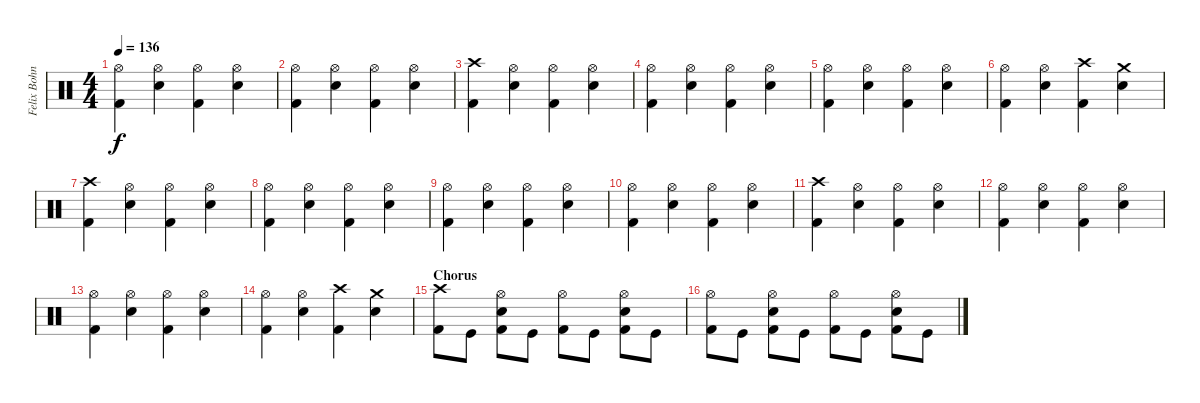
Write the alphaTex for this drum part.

\track ("Felix Bohnke" "Felix Bohn") {instrument percussion}
\staff {score}
\articulation defaults
\ts (4 4)
\tempo 136
\clef neutral
\ks c
("Hi-Hat (open)" "Kick (hit) 2").4{dy f} ("Hi-Hat (open)" "Snare (hit) 2").4 ("Hi-Hat (open)" "Kick (hit) 2").4 ("Hi-Hat (open)" "Snare (hit) 2").4 |
("Hi-Hat (open)" "Kick (hit) 2").4 ("Hi-Hat (open)" "Snare (hit) 2").4 ("Hi-Hat (open)" "Kick (hit) 2").4 ("Hi-Hat (open)" "Snare (hit) 2").4 |
("Crash high (hit)" "Kick (hit) 2").4 ("Hi-Hat (open)" "Snare (hit) 2").4 ("Hi-Hat (open)" "Kick (hit) 2").4 ("Hi-Hat (open)" "Snare (hit) 2").4 |
("Hi-Hat (open)" "Kick (hit) 2").4 ("Hi-Hat (open)" "Snare (hit) 2").4 ("Hi-Hat (open)" "Kick (hit) 2").4 ("Hi-Hat (open)" "Snare (hit) 2").4 |
("Hi-Hat (open)" "Kick (hit) 2").4 ("Hi-Hat (open)" "Snare (hit) 2").4 ("Hi-Hat (open)" "Kick (hit) 2").4 ("Hi-Hat (open)" "Snare (hit) 2").4 |
("Hi-Hat (open)" "Kick (hit) 2").4 ("Hi-Hat (open)" "Snare (hit) 2").4 ("Crash high (hit)" "Kick (hit) 2").4 ("Crash medium (hit)" "Snare (hit) 2").4 |
("Crash high (hit)" "Kick (hit) 2").4 ("Hi-Hat (open)" "Snare (hit) 2").4 ("Hi-Hat (open)" "Kick (hit) 2").4 ("Hi-Hat (open)" "Snare (hit) 2").4 |
("Hi-Hat (open)" "Kick (hit) 2").4 ("Hi-Hat (open)" "Snare (hit) 2").4 ("Hi-Hat (open)" "Kick (hit) 2").4 ("Hi-Hat (open)" "Snare (hit) 2").4 |
("Hi-Hat (open)" "Kick (hit) 2").4 ("Hi-Hat (open)" "Snare (hit) 2").4 ("Hi-Hat (open)" "Kick (hit) 2").4 ("Hi-Hat (open)" "Snare (hit) 2").4 |
("Hi-Hat (open)" "Kick (hit) 2").4 ("Hi-Hat (open)" "Snare (hit) 2").4 ("Hi-Hat (open)" "Kick (hit) 2").4 ("Hi-Hat (open)" "Snare (hit) 2").4 |
("Crash high (hit)" "Kick (hit) 2").4 ("Hi-Hat (open)" "Snare (hit) 2").4 ("Hi-Hat (open)" "Kick (hit) 2").4 ("Hi-Hat (open)" "Snare (hit) 2").4 |
("Hi-Hat (open)" "Kick (hit) 2").4 ("Hi-Hat (open)" "Snare (hit) 2").4 ("Hi-Hat (open)" "Kick (hit) 2").4 ("Hi-Hat (open)" "Snare (hit) 2").4 |
("Hi-Hat (open)" "Kick (hit) 2").4 ("Hi-Hat (open)" "Snare (hit) 2").4 ("Hi-Hat (open)" "Kick (hit) 2").4 ("Hi-Hat (open)" "Snare (hit) 2").4 |
("Hi-Hat (open)" "Kick (hit) 2").4 ("Hi-Hat (open)" "Snare (hit) 2").4 ("Crash high (hit)" "Kick (hit) 2").4 ("Crash medium (hit)" "Snare (hit) 2").4 |
\section ("" "Chorus")
("Crash high (hit)" "Kick (hit) 2").8 "Kick (hit)".8 ("Hi-Hat (open)" "Snare (hit) 2" "Kick (hit) 2").8 "Kick (hit)".8 ("Hi-Hat (open)" "Kick (hit) 2").8 "Kick (hit)".8 ("Hi-Hat (open)" "Snare (hit) 2" "Kick (hit) 2").8 "Kick (hit)".8 |
("Hi-Hat (open)" "Kick (hit) 2").8 "Kick (hit)".8 ("Hi-Hat (open)" "Snare (hit) 2" "Kick (hit) 2").8 "Kick (hit)".8 ("Hi-Hat (open)" "Kick (hit) 2").8 "Kick (hit)".8 ("Hi-Hat (open)" "Snare (hit) 2" "Kick (hit) 2").8 "Kick (hit)".8
